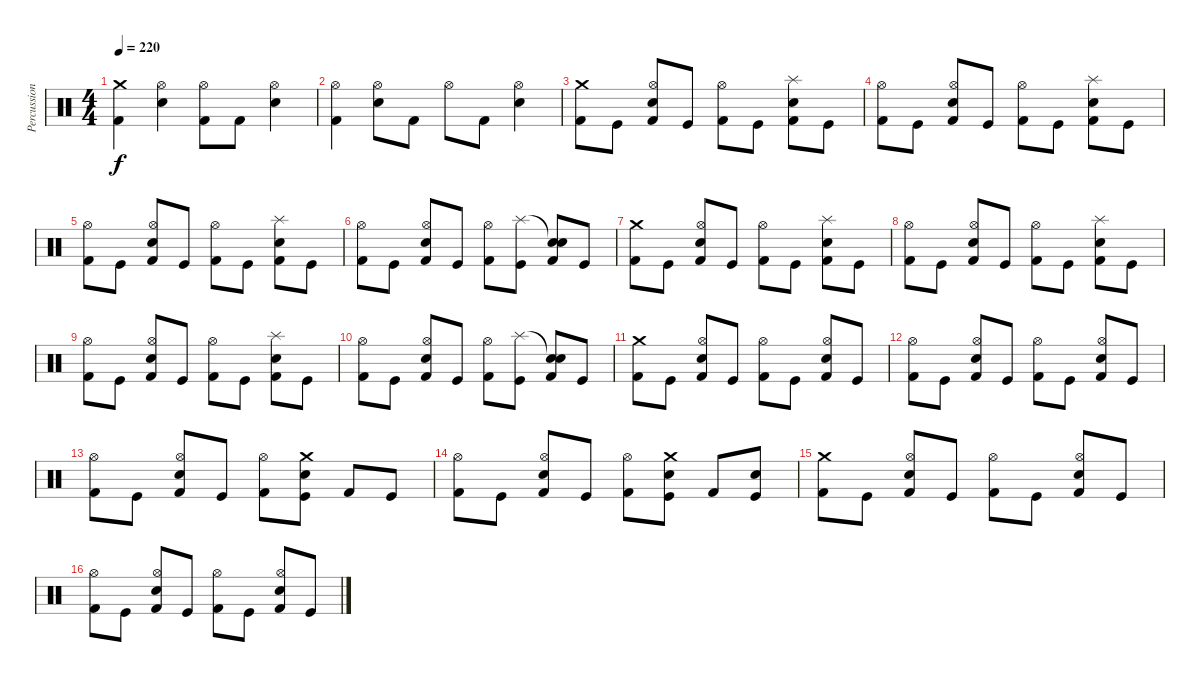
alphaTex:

\track ("Percussions" "Percussion") {instrument percussion}
\staff {score}
\articulation defaults
\ts (4 4)
\tempo 220
\clef neutral
\ks c
("Crash medium (hit)" "Kick (hit) 2").4{dy f} ("Hi-Hat (open)" "Electric Snare (hit)").4 ("Hi-Hat (open)" "Kick (hit) 2").8 "Kick (hit) 2".8 ("Hi-Hat (open)" "Electric Snare (hit)").4 |
("Hi-Hat (open)" "Kick (hit) 2").4 ("Hi-Hat (open)" "Electric Snare (hit)").8 "Kick (hit) 2".8 "Hi-Hat (open)".8 "Kick (hit) 2".8 ("Hi-Hat (open)" "Electric Snare (hit)").4 |
("Crash medium (hit)" "Kick (hit) 2").8 "Kick (hit)".8 ("Hi-Hat (open)" "Electric Snare (hit)" "Kick (hit) 2").8 "Kick (hit)".8 ("Hi-Hat (open)" "Kick (hit) 2").8 "Kick (hit)".8 ("Splash (hit)" "Electric Snare (hit)" "Kick (hit) 2").8 "Kick (hit)".8 |
("Hi-Hat (open)" "Kick (hit) 2").8 "Kick (hit)".8 ("Hi-Hat (open)" "Electric Snare (hit)" "Kick (hit) 2").8 "Kick (hit)".8 ("Hi-Hat (open)" "Kick (hit) 2").8 "Kick (hit)".8 ("Splash (hit)" "Electric Snare (hit)" "Kick (hit) 2").8 "Kick (hit)".8 |
("Hi-Hat (open)" "Kick (hit) 2").8 "Kick (hit)".8 ("Hi-Hat (open)" "Electric Snare (hit)" "Kick (hit) 2").8 "Kick (hit)".8 ("Hi-Hat (open)" "Kick (hit) 2").8 "Kick (hit)".8 ("Splash (hit)" "Electric Snare (hit)" "Kick (hit) 2").8 "Kick (hit)".8 |
("Hi-Hat (open)" "Kick (hit) 2").8 "Kick (hit)".8 ("Hi-Hat (open)" "Electric Snare (hit)" "Kick (hit) 2").8 "Kick (hit)".8 ("Hi-Hat (open)" "Kick (hit) 2").8 ("Splash (hit)" "Kick (hit)").8 ("Snare (hit)"{t} "Electric Snare (hit)" "Kick (hit) 2").8 "Kick (hit)".8 |
("Crash medium (hit)" "Kick (hit) 2").8 "Kick (hit)".8 ("Hi-Hat (open)" "Electric Snare (hit)" "Kick (hit) 2").8 "Kick (hit)".8 ("Hi-Hat (open)" "Kick (hit) 2").8 "Kick (hit)".8 ("Splash (hit)" "Electric Snare (hit)" "Kick (hit) 2").8 "Kick (hit)".8 |
("Hi-Hat (open)" "Kick (hit) 2").8 "Kick (hit)".8 ("Hi-Hat (open)" "Electric Snare (hit)" "Kick (hit) 2").8 "Kick (hit)".8 ("Hi-Hat (open)" "Kick (hit) 2").8 "Kick (hit)".8 ("Splash (hit)" "Electric Snare (hit)" "Kick (hit) 2").8 "Kick (hit)".8 |
("Hi-Hat (open)" "Kick (hit) 2").8 "Kick (hit)".8 ("Hi-Hat (open)" "Electric Snare (hit)" "Kick (hit) 2").8 "Kick (hit)".8 ("Hi-Hat (open)" "Kick (hit) 2").8 "Kick (hit)".8 ("Splash (hit)" "Electric Snare (hit)" "Kick (hit) 2").8 "Kick (hit)".8 |
("Hi-Hat (open)" "Kick (hit) 2").8 "Kick (hit)".8 ("Hi-Hat (open)" "Electric Snare (hit)" "Kick (hit) 2").8 "Kick (hit)".8 ("Hi-Hat (open)" "Kick (hit) 2").8 ("Splash (hit)" "Kick (hit)").8 ("Snare (hit)"{t} "Electric Snare (hit)" "Kick (hit) 2").8 "Kick (hit)".8 |
("Crash medium (hit)" "Kick (hit) 2").8 "Kick (hit)".8 ("Hi-Hat (open)" "Electric Snare (hit)" "Kick (hit) 2").8 "Kick (hit)".8 ("Hi-Hat (open)" "Kick (hit) 2").8 "Kick (hit)".8 ("Hi-Hat (open)" "Electric Snare (hit)" "Kick (hit) 2").8 "Kick (hit)".8 |
("Hi-Hat (open)" "Kick (hit) 2").8 "Kick (hit)".8 ("Hi-Hat (open)" "Electric Snare (hit)" "Kick (hit) 2").8 "Kick (hit)".8 ("Hi-Hat (open)" "Kick (hit) 2").8 "Kick (hit)".8 ("Hi-Hat (open)" "Electric Snare (hit)" "Kick (hit) 2").8 "Kick (hit)".8 |
("Hi-Hat (open)" "Kick (hit) 2").8 "Kick (hit)".8 ("Hi-Hat (open)" "Electric Snare (hit)" "Kick (hit) 2").8 "Kick (hit)".8 ("Hi-Hat (open)" "Kick (hit) 2").8 ("Crash medium (hit)" "Electric Snare (hit)" "Kick (hit)").8 "Kick (hit) 2".8 "Kick (hit)".8 |
("Hi-Hat (open)" "Kick (hit) 2").8 "Kick (hit)".8 ("Hi-Hat (open)" "Electric Snare (hit)" "Kick (hit) 2").8 "Kick (hit)".8 ("Hi-Hat (open)" "Kick (hit) 2").8 ("Crash medium (hit)" "Electric Snare (hit)" "Kick (hit)").8 "Kick (hit) 2".8 ("Electric Snare (hit)" "Kick (hit)").8 |
("Crash medium (hit)" "Kick (hit) 2").8 "Kick (hit)".8 ("Hi-Hat (open)" "Electric Snare (hit)" "Kick (hit) 2").8 "Kick (hit)".8 ("Hi-Hat (open)" "Kick (hit) 2").8 "Kick (hit)".8 ("Hi-Hat (open)" "Electric Snare (hit)" "Kick (hit) 2").8 "Kick (hit)".8 |
("Hi-Hat (open)" "Kick (hit) 2").8 "Kick (hit)".8 ("Hi-Hat (open)" "Electric Snare (hit)" "Kick (hit) 2").8 "Kick (hit)".8 ("Hi-Hat (open)" "Kick (hit) 2").8 "Kick (hit)".8 ("Hi-Hat (open)" "Electric Snare (hit)" "Kick (hit) 2").8 "Kick (hit)".8
